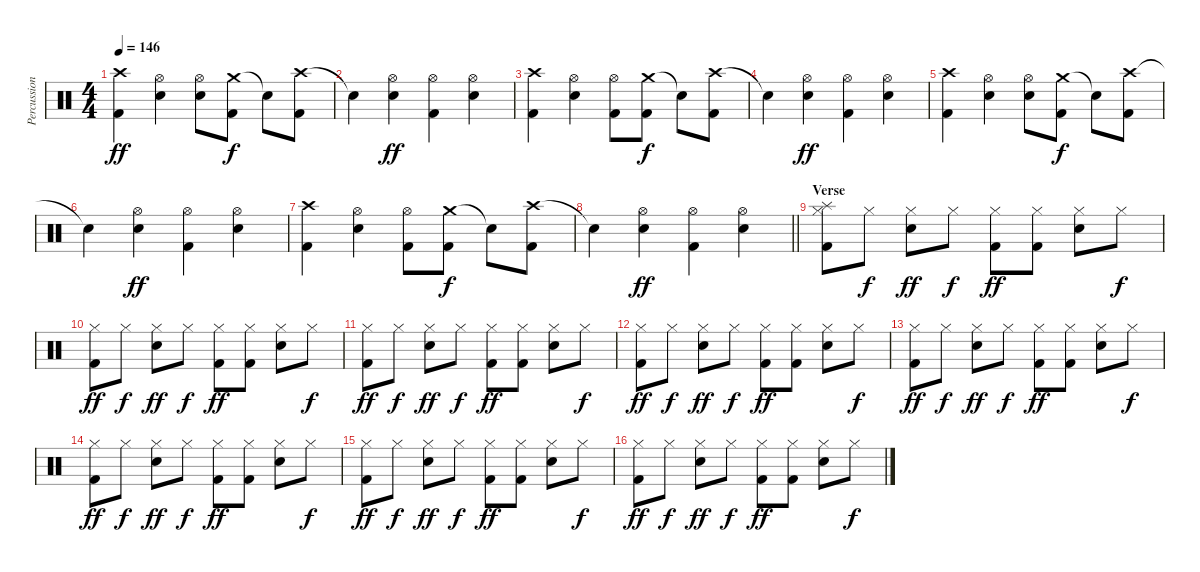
\track ("Percussion" "Percussion") {instrument percussion}
\staff {score}
\articulation defaults
\ts (4 4)
\tempo 146
\clef neutral
\ks c
("Crash high (hit)" "Kick (hit) 2").4{dy ff} ("Hi-Hat (open)" "Snare (hit) 2").4 ("Hi-Hat (open)" "Snare (hit) 2").8 ("Crash medium (hit)" "Kick (hit) 2").8{dy f} "Snare (hit)"{t}.8 ("Crash high (hit)" "Kick (hit) 2").8 |
"Snare (hit)"{t}.4 ("Hi-Hat (open)" "Snare (hit) 2").4{dy ff} ("Hi-Hat (open)" "Kick (hit) 2").4 ("Hi-Hat (open)" "Snare (hit) 2").4 |
("Crash high (hit)" "Kick (hit) 2").4 ("Hi-Hat (open)" "Snare (hit) 2").4 ("Hi-Hat (open)" "Kick (hit) 2").8 ("Crash medium (hit)" "Kick (hit) 2").8{dy f} "Snare (hit)"{t}.8 ("Crash high (hit)" "Kick (hit) 2").8 |
"Snare (hit)"{t}.4 ("Hi-Hat (open)" "Snare (hit) 2").4{dy ff} ("Hi-Hat (open)" "Kick (hit) 2").4 ("Hi-Hat (open)" "Snare (hit) 2").4 |
("Crash high (hit)" "Kick (hit) 2").4 ("Hi-Hat (open)" "Snare (hit) 2").4 ("Hi-Hat (open)" "Snare (hit) 2").8 ("Crash medium (hit)" "Kick (hit) 2").8{dy f} "Snare (hit)"{t}.8 ("Crash high (hit)" "Kick (hit) 2").8 |
"Snare (hit)"{t}.4 ("Hi-Hat (open)" "Snare (hit) 2").4{dy ff} ("Hi-Hat (open)" "Kick (hit) 2").4 ("Hi-Hat (open)" "Snare (hit) 2").4 |
("Crash high (hit)" "Kick (hit) 2").4 ("Hi-Hat (open)" "Snare (hit) 2").4 ("Hi-Hat (open)" "Kick (hit) 2").8 ("Crash medium (hit)" "Kick (hit) 2").8{dy f} "Snare (hit)"{t}.8 ("Crash high (hit)" "Kick (hit) 2").8 |
\barLineRight lightlight "Snare (hit)"{t}.4
("Hi-Hat (open)" "Snare (hit) 2").4{dy ff} ("Hi-Hat (open)" "Kick (hit) 2").4 ("Hi-Hat (open)" "Snare (hit) 2").4 |
\section ("" "Verse")
("Splash (hit)" "Hi-Hat (closed)" "Kick (hit) 2").8 "Hi-Hat (closed)".8{dy f} ("Hi-Hat (closed)" "Snare (hit) 2").8{dy ff} "Hi-Hat (closed)".8{dy f} ("Hi-Hat (closed)" "Kick (hit) 2").8{dy ff} ("Hi-Hat (closed)" "Kick (hit) 2").8 ("Hi-Hat (closed)" "Snare (hit) 2").8 "Hi-Hat (closed)".8{dy f} |
("Hi-Hat (closed)" "Kick (hit) 2").8{dy ff} "Hi-Hat (closed)".8{dy f} ("Hi-Hat (closed)" "Snare (hit) 2").8{dy ff} "Hi-Hat (closed)".8{dy f} ("Hi-Hat (closed)" "Kick (hit) 2").8{dy ff} ("Hi-Hat (closed)" "Kick (hit) 2").8 ("Hi-Hat (closed)" "Snare (hit) 2").8 "Hi-Hat (closed)".8{dy f} |
("Hi-Hat (closed)" "Kick (hit) 2").8{dy ff} "Hi-Hat (closed)".8{dy f} ("Hi-Hat (closed)" "Snare (hit) 2").8{dy ff} "Hi-Hat (closed)".8{dy f} ("Hi-Hat (closed)" "Kick (hit) 2").8{dy ff} ("Hi-Hat (closed)" "Kick (hit) 2").8 ("Hi-Hat (closed)" "Snare (hit) 2").8 "Hi-Hat (closed)".8{dy f} |
("Hi-Hat (closed)" "Kick (hit) 2").8{dy ff} "Hi-Hat (closed)".8{dy f} ("Hi-Hat (closed)" "Snare (hit) 2").8{dy ff} "Hi-Hat (closed)".8{dy f} ("Hi-Hat (closed)" "Kick (hit) 2").8{dy ff} ("Hi-Hat (closed)" "Kick (hit) 2").8 ("Hi-Hat (closed)" "Snare (hit) 2").8 "Hi-Hat (closed)".8{dy f} |
("Hi-Hat (closed)" "Kick (hit) 2").8{dy ff} "Hi-Hat (closed)".8{dy f} ("Hi-Hat (closed)" "Snare (hit) 2").8{dy ff} "Hi-Hat (closed)".8{dy f} ("Hi-Hat (closed)" "Kick (hit) 2").8{dy ff} ("Hi-Hat (closed)" "Kick (hit) 2").8 ("Hi-Hat (closed)" "Snare (hit) 2").8 "Hi-Hat (closed)".8{dy f} |
("Hi-Hat (closed)" "Kick (hit) 2").8{dy ff} "Hi-Hat (closed)".8{dy f} ("Hi-Hat (closed)" "Snare (hit) 2").8{dy ff} "Hi-Hat (closed)".8{dy f} ("Hi-Hat (closed)" "Kick (hit) 2").8{dy ff} ("Hi-Hat (closed)" "Kick (hit) 2").8 ("Hi-Hat (closed)" "Snare (hit) 2").8 "Hi-Hat (closed)".8{dy f} |
("Hi-Hat (closed)" "Kick (hit) 2").8{dy ff} "Hi-Hat (closed)".8{dy f} ("Hi-Hat (closed)" "Snare (hit) 2").8{dy ff} "Hi-Hat (closed)".8{dy f} ("Hi-Hat (closed)" "Kick (hit) 2").8{dy ff} ("Hi-Hat (closed)" "Kick (hit) 2").8 ("Hi-Hat (closed)" "Snare (hit) 2").8 "Hi-Hat (closed)".8{dy f} |
("Hi-Hat (closed)" "Kick (hit) 2").8{dy ff} "Hi-Hat (closed)".8{dy f} ("Hi-Hat (closed)" "Snare (hit) 2").8{dy ff} "Hi-Hat (closed)".8{dy f} ("Hi-Hat (closed)" "Kick (hit) 2").8{dy ff} ("Hi-Hat (closed)" "Kick (hit) 2").8 ("Hi-Hat (closed)" "Snare (hit) 2").8 "Hi-Hat (closed)".8{dy f}
